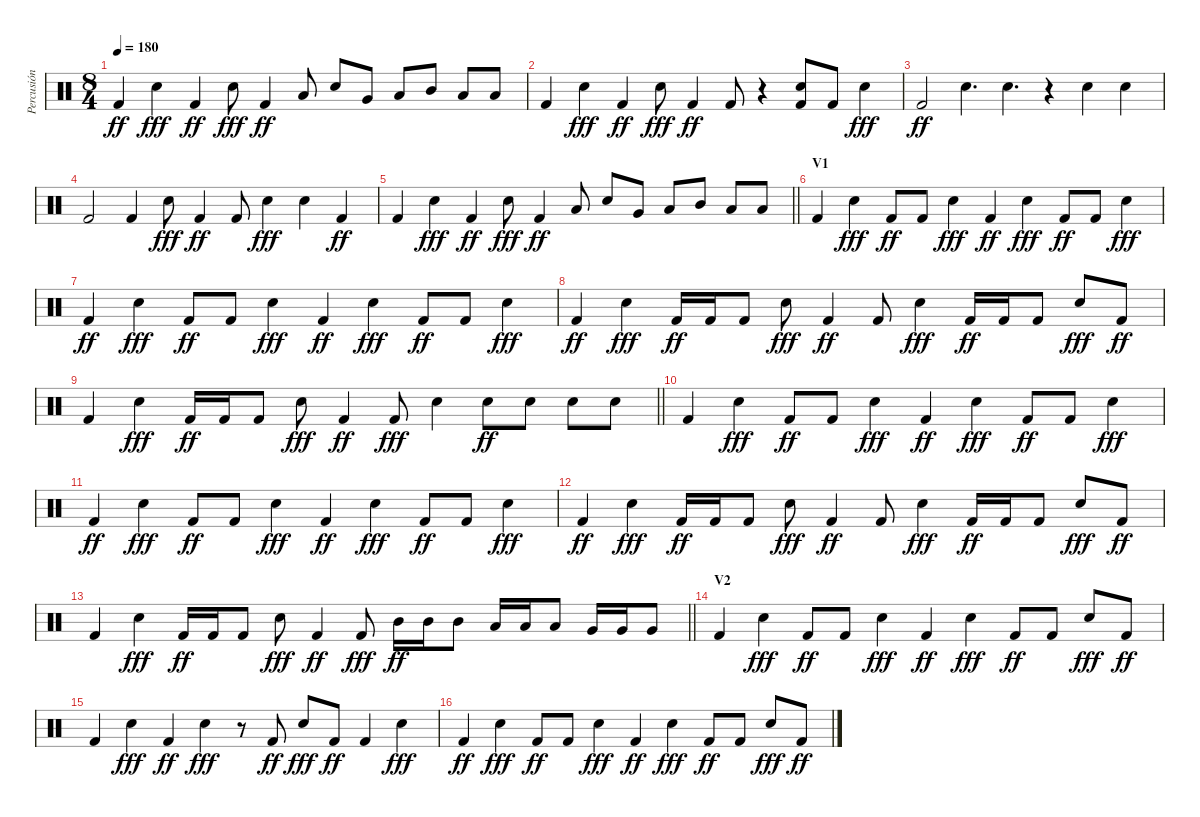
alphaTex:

\track ("Percusión" "Percusión") {instrument percussion}
\staff {score}
\articulation defaults
\ts (8 4)
\tempo 180
\clef neutral
\ks c "Kick (hit) 2".4{dy ff} "Electric Snare (hit)".4{dy fff} "Kick (hit) 2".4{dy ff} "Electric Snare (hit)".8{dy fff} "Kick (hit) 2".4{dy ff} "Low Floor Tom (hit)".8 "Electric Snare (hit)".8 "Very Low Tom (hit)".8 "Low Tom (hit)".8 "Mid Tom (hit)".8 "Low Tom (hit)".8 "Low Tom (hit)".8
|
"Kick (hit) 2".4 "Electric Snare (hit)".4{dy fff} "Kick (hit) 2".4{dy ff} "Electric Snare (hit)".8{dy fff} "Kick (hit) 2".4{dy ff} "Kick (hit) 2".8 r.4 ("Electric Snare (hit)" "Kick (hit) 2").8 "Kick (hit) 2".8 "Electric Snare (hit)".4{dy fff} |
"Kick (hit) 2".2{dy ff} "Electric Snare (hit)".4{d} "Electric Snare (hit)".4{d} r.4 "Electric Snare (hit)".4 "Electric Snare (hit)".4 |
"Kick (hit) 2".2 "Kick (hit) 2".4 "Electric Snare (hit)".8{dy fff} "Kick (hit) 2".4{dy ff} "Kick (hit) 2".8 "Electric Snare (hit)".4{dy fff} "Electric Snare (hit)".4 "Kick (hit) 2".4{dy ff} |
\barLineRight lightlight "Kick (hit) 2".4 "Electric Snare (hit)".4{dy fff} "Kick (hit) 2".4{dy ff} "Electric Snare (hit)".8{dy fff} "Kick (hit) 2".4{dy ff} "Low Floor Tom (hit)".8 "Electric Snare (hit)".8 "Very Low Tom (hit)".8 "Low Tom (hit)".8 "Mid Tom (hit)".8 "Low Tom (hit)".8 "Low Tom (hit)".8
|
\section ("" "V1")
"Kick (hit) 2".4 "Electric Snare (hit)".4{dy fff} "Kick (hit) 2".8{dy ff} "Kick (hit) 2".8 "Electric Snare (hit)".4{dy fff} "Kick (hit) 2".4{dy ff} "Electric Snare (hit)".4{dy fff} "Kick (hit) 2".8{dy ff} "Kick (hit) 2".8 "Electric Snare (hit)".4{dy fff} |
"Kick (hit) 2".4{dy ff} "Electric Snare (hit)".4{dy fff} "Kick (hit) 2".8{dy ff} "Kick (hit) 2".8 "Electric Snare (hit)".4{dy fff} "Kick (hit) 2".4{dy ff} "Electric Snare (hit)".4{dy fff} "Kick (hit) 2".8{dy ff} "Kick (hit) 2".8 "Electric Snare (hit)".4{dy fff} |
"Kick (hit) 2".4{dy ff} "Electric Snare (hit)".4{dy fff} "Kick (hit) 2".16{dy ff} "Kick (hit) 2".16 "Kick (hit) 2".8 "Electric Snare (hit)".8{dy fff} "Kick (hit) 2".4{dy ff} "Kick (hit) 2".8 "Electric Snare (hit)".4{dy fff} "Kick (hit) 2".16{dy ff} "Kick (hit) 2".16 "Kick (hit) 2".8 "Electric Snare (hit)".8{dy fff} "Kick (hit) 2".8{dy ff} |
\barLineRight lightlight "Kick (hit) 2".4 "Electric Snare (hit)".4{dy fff} "Kick (hit) 2".16{dy ff} "Kick (hit) 2".16 "Kick (hit) 2".8 "Electric Snare (hit)".8{dy fff} "Kick (hit) 2".4{dy ff} "Kick (hit) 2".8{dy fff} "Electric Snare (hit)".4 "Electric Snare (hit)".8{dy ff} "Electric Snare (hit)".8 "Electric Snare (hit)".8 "Electric Snare (hit)".8
|
"Kick (hit) 2".4 "Electric Snare (hit)".4{dy fff} "Kick (hit) 2".8{dy ff} "Kick (hit) 2".8 "Electric Snare (hit)".4{dy fff} "Kick (hit) 2".4{dy ff} "Electric Snare (hit)".4{dy fff} "Kick (hit) 2".8{dy ff} "Kick (hit) 2".8 "Electric Snare (hit)".4{dy fff} |
"Kick (hit) 2".4{dy ff} "Electric Snare (hit)".4{dy fff} "Kick (hit) 2".8{dy ff} "Kick (hit) 2".8 "Electric Snare (hit)".4{dy fff} "Kick (hit) 2".4{dy ff} "Electric Snare (hit)".4{dy fff} "Kick (hit) 2".8{dy ff} "Kick (hit) 2".8 "Electric Snare (hit)".4{dy fff} |
"Kick (hit) 2".4{dy ff} "Electric Snare (hit)".4{dy fff} "Kick (hit) 2".16{dy ff} "Kick (hit) 2".16 "Kick (hit) 2".8 "Electric Snare (hit)".8{dy fff} "Kick (hit) 2".4{dy ff} "Kick (hit) 2".8 "Electric Snare (hit)".4{dy fff} "Kick (hit) 2".16{dy ff} "Kick (hit) 2".16 "Kick (hit) 2".8 "Electric Snare (hit)".8{dy fff} "Kick (hit) 2".8{dy ff} |
\barLineRight lightlight "Kick (hit) 2".4 "Electric Snare (hit)".4{dy fff} "Kick (hit) 2".16{dy ff} "Kick (hit) 2".16 "Kick (hit) 2".8 "Electric Snare (hit)".8{dy fff} "Kick (hit) 2".4{dy ff} "Kick (hit) 2".8{dy fff} "Mid Tom (hit)".16{dy ff} "Mid Tom (hit)".16 "Mid Tom (hit)".8 "Low Tom (hit)".16 "Low Tom (hit)".16 "Low Tom (hit)".8 "Very Low Tom (hit)".16 "Very Low Tom (hit)".16 "Very Low Tom (hit)".8
|
\section ("" "V2")
"Kick (hit) 2".4 "Electric Snare (hit)".4{dy fff} "Kick (hit) 2".8{dy ff} "Kick (hit) 2".8 "Electric Snare (hit)".4{dy fff} "Kick (hit) 2".4{dy ff} "Electric Snare (hit)".4{dy fff} "Kick (hit) 2".8{dy ff} "Kick (hit) 2".8 "Electric Snare (hit)".8{dy fff} "Kick (hit) 2".8{dy ff} |
"Kick (hit) 2".4 "Electric Snare (hit)".4{dy fff} "Kick (hit) 2".4{dy ff} "Electric Snare (hit)".4{dy fff} r.8 "Kick (hit) 2".8{dy ff} "Electric Snare (hit)".8{dy fff} "Kick (hit) 2".8{dy ff} "Kick (hit) 2".4 "Electric Snare (hit)".4{dy fff} |
"Kick (hit) 2".4{dy ff} "Electric Snare (hit)".4{dy fff} "Kick (hit) 2".8{dy ff} "Kick (hit) 2".8 "Electric Snare (hit)".4{dy fff} "Kick (hit) 2".4{dy ff} "Electric Snare (hit)".4{dy fff} "Kick (hit) 2".8{dy ff} "Kick (hit) 2".8 "Electric Snare (hit)".8{dy fff} "Kick (hit) 2".8{dy ff}
